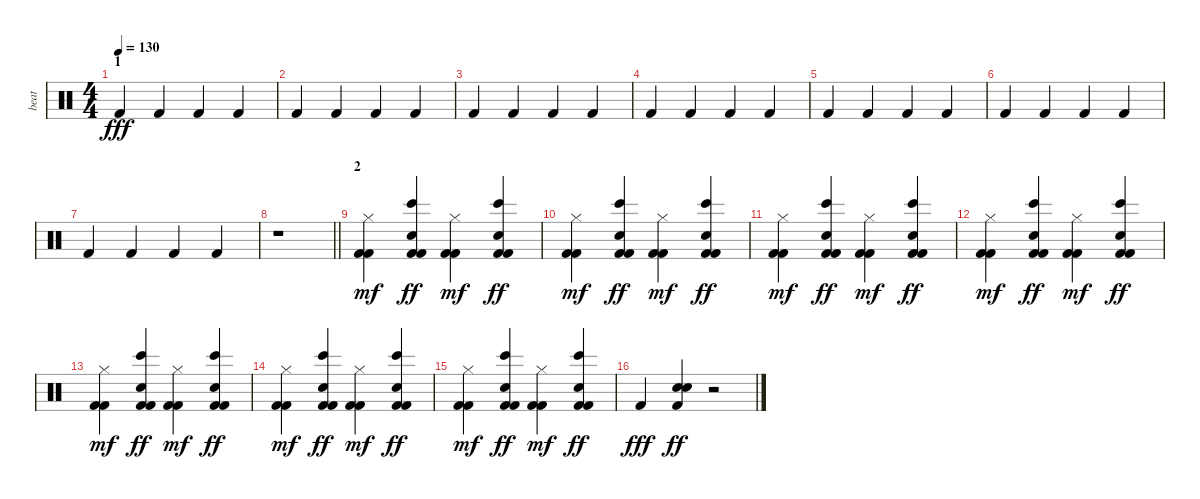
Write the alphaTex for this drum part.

\track ("beat" "beat") {instrument percussion}
\staff {score}
\articulation defaults
\ts (4 4)
\section ("" "1")
\tempo 130
\clef neutral
\ks c "Kick (hit) 2".4{dy fff} "Kick (hit) 2".4 "Kick (hit) 2".4 "Kick (hit) 2".4
|
"Kick (hit) 2".4 "Kick (hit) 2".4 "Kick (hit) 2".4 "Kick (hit) 2".4 |
"Kick (hit) 2".4 "Kick (hit) 2".4 "Kick (hit) 2".4 "Kick (hit) 2".4 |
"Kick (hit) 2".4 "Kick (hit) 2".4 "Kick (hit) 2".4 "Kick (hit) 2".4 |
"Kick (hit) 2".4 "Kick (hit) 2".4 "Kick (hit) 2".4 "Kick (hit) 2".4 |
"Kick (hit) 2".4 "Kick (hit) 2".4 "Kick (hit) 2".4 "Kick (hit) 2".4 |
"Kick (hit) 2".4 "Kick (hit) 2".4 "Kick (hit) 2".4 "Kick (hit) 2".4 |
\barLineRight lightlight
r.1 |
\section ("" "2")
("Kick (hit) 2" "Kick (hit) 2" "Hi-Hat (closed)").4{dy mf} ("Kick (hit) 2" "Kick (hit) 2" "Bongo High (hit)" "Hand Clap (hit)").4{dy ff} ("Kick (hit) 2" "Kick (hit) 2" "Hi-Hat (closed)").4{dy mf} ("Kick (hit) 2" "Kick (hit) 2" "Bongo High (hit)" "Hand Clap (hit)").4{dy ff} |
("Kick (hit) 2" "Kick (hit) 2" "Hi-Hat (closed)").4{dy mf} ("Kick (hit) 2" "Kick (hit) 2" "Bongo High (hit)" "Hand Clap (hit)").4{dy ff} ("Kick (hit) 2" "Kick (hit) 2" "Hi-Hat (closed)").4{dy mf} ("Kick (hit) 2" "Kick (hit) 2" "Bongo High (hit)" "Hand Clap (hit)").4{dy ff} |
("Kick (hit) 2" "Kick (hit) 2" "Hi-Hat (closed)").4{dy mf} ("Kick (hit) 2" "Kick (hit) 2" "Bongo High (hit)" "Hand Clap (hit)").4{dy ff} ("Kick (hit) 2" "Kick (hit) 2" "Hi-Hat (closed)").4{dy mf} ("Kick (hit) 2" "Kick (hit) 2" "Bongo High (hit)" "Hand Clap (hit)").4{dy ff} |
("Kick (hit) 2" "Kick (hit) 2" "Hi-Hat (closed)").4{dy mf} ("Kick (hit) 2" "Kick (hit) 2" "Bongo High (hit)" "Hand Clap (hit)").4{dy ff} ("Kick (hit) 2" "Kick (hit) 2" "Hi-Hat (closed)").4{dy mf} ("Kick (hit) 2" "Kick (hit) 2" "Bongo High (hit)" "Hand Clap (hit)").4{dy ff} |
("Kick (hit) 2" "Kick (hit) 2" "Hi-Hat (closed)").4{dy mf} ("Kick (hit) 2" "Kick (hit) 2" "Bongo High (hit)" "Hand Clap (hit)").4{dy ff} ("Kick (hit) 2" "Kick (hit) 2" "Hi-Hat (closed)").4{dy mf} ("Kick (hit) 2" "Kick (hit) 2" "Bongo High (hit)" "Hand Clap (hit)").4{dy ff} |
("Kick (hit) 2" "Kick (hit) 2" "Hi-Hat (closed)").4{dy mf} ("Kick (hit) 2" "Kick (hit) 2" "Bongo High (hit)" "Hand Clap (hit)").4{dy ff} ("Kick (hit) 2" "Kick (hit) 2" "Hi-Hat (closed)").4{dy mf} ("Kick (hit) 2" "Kick (hit) 2" "Bongo High (hit)" "Hand Clap (hit)").4{dy ff} |
("Kick (hit) 2" "Kick (hit) 2" "Hi-Hat (closed)").4{dy mf} ("Kick (hit) 2" "Kick (hit) 2" "Bongo High (hit)" "Hand Clap (hit)").4{dy ff} ("Kick (hit) 2" "Kick (hit) 2" "Hi-Hat (closed)").4{dy mf} ("Kick (hit) 2" "Kick (hit) 2" "Bongo High (hit)" "Hand Clap (hit)").4{dy ff} |
"Kick (hit) 2".4{dy fff} ("Kick (hit) 2" "Electric Snare (hit)" "Hand Clap (hit)").4{dy ff} r.2
